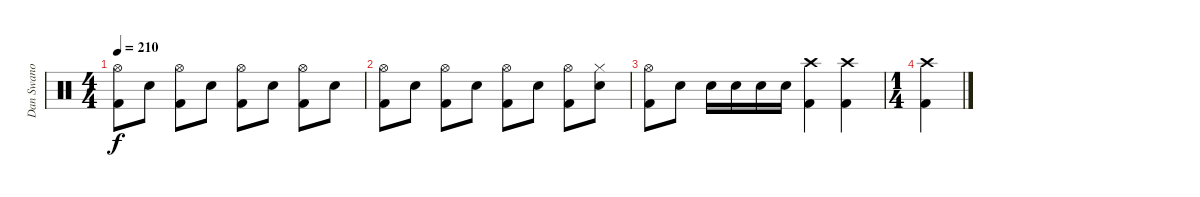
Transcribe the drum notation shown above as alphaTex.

\track ("Dan Swano" "Dan Swano") {instrument percussion}
\staff {score}
\articulation defaults
\ts (4 4)
\tempo 210
\clef neutral
\ks c
("Hi-Hat (open)" "Kick (hit) 2").8{dy f} "Electric Snare (hit)".8 ("Hi-Hat (open)" "Kick (hit) 2").8 "Electric Snare (hit)".8 ("Hi-Hat (open)" "Kick (hit) 2").8 "Electric Snare (hit)".8 ("Hi-Hat (open)" "Kick (hit) 2").8 "Electric Snare (hit)".8 |
("Hi-Hat (open)" "Kick (hit) 2").8 "Electric Snare (hit)".8 ("Hi-Hat (open)" "Kick (hit) 2").8 "Electric Snare (hit)".8 ("Hi-Hat (open)" "Kick (hit) 2").8 "Electric Snare (hit)".8 ("Hi-Hat (open)" "Kick (hit) 2").8 ("Hi-Hat (closed)" "Electric Snare (hit)").8 |
("Hi-Hat (open)" "Kick (hit) 2").8 "Electric Snare (hit)".8 "Electric Snare (hit)".16 "Electric Snare (hit)".16 "Electric Snare (hit)".16 "Electric Snare (hit)".16 ("Crash high (hit)" "Kick (hit) 2").4 ("Crash high (hit)" "Kick (hit) 2").4 |
\ts (1 4)
("Crash high (hit)" "Kick (hit) 2").4
